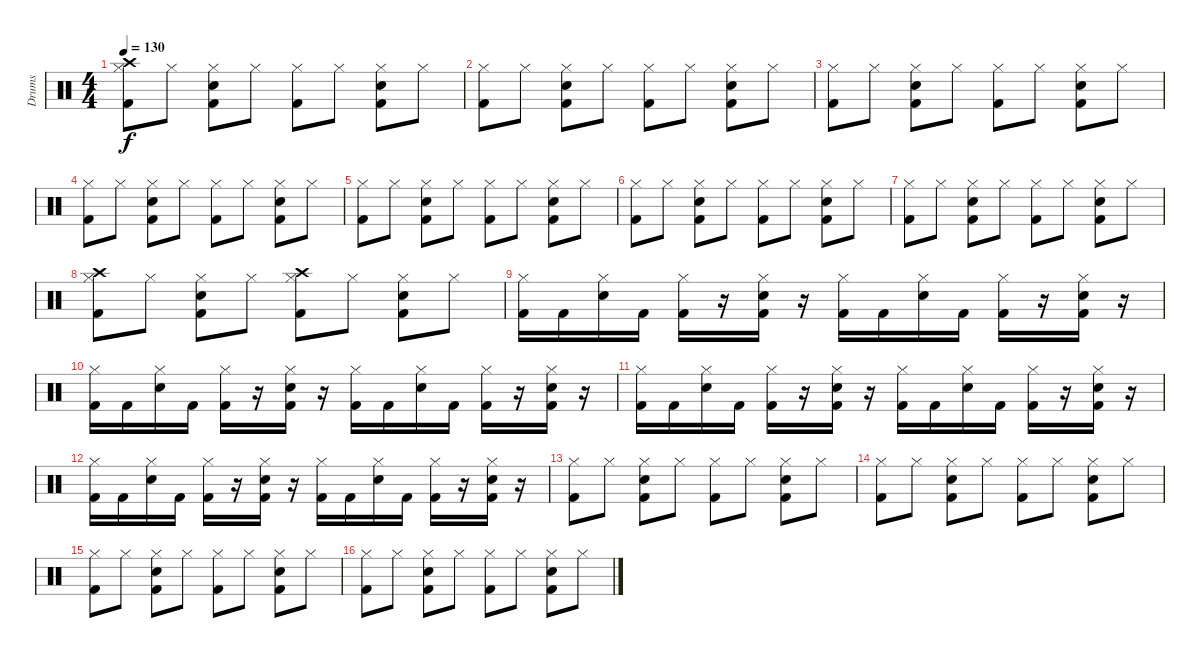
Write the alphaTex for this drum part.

\track ("Drums" "Drums") {instrument percussion}
\staff {score}
\articulation defaults
\ts (4 4)
\tempo 130
\clef neutral
\ks c
("Hi-Hat (closed)" "Kick (hit) 2" "Crash high (hit)").8{dy f} "Hi-Hat (closed)".8 ("Hi-Hat (closed)" "Electric Snare (hit)" "Kick (hit) 2").8 "Hi-Hat (closed)".8 ("Hi-Hat (closed)" "Kick (hit) 2").8 "Hi-Hat (closed)".8 ("Hi-Hat (closed)" "Electric Snare (hit)" "Kick (hit) 2").8 "Hi-Hat (closed)".8 |
("Hi-Hat (closed)" "Kick (hit) 2").8 "Hi-Hat (closed)".8 ("Hi-Hat (closed)" "Electric Snare (hit)" "Kick (hit) 2").8 "Hi-Hat (closed)".8 ("Hi-Hat (closed)" "Kick (hit) 2").8 "Hi-Hat (closed)".8 ("Hi-Hat (closed)" "Electric Snare (hit)" "Kick (hit) 2").8 "Hi-Hat (closed)".8 |
("Hi-Hat (closed)" "Kick (hit) 2").8 "Hi-Hat (closed)".8 ("Hi-Hat (closed)" "Electric Snare (hit)" "Kick (hit) 2").8 "Hi-Hat (closed)".8 ("Hi-Hat (closed)" "Kick (hit) 2").8 "Hi-Hat (closed)".8 ("Hi-Hat (closed)" "Electric Snare (hit)" "Kick (hit) 2").8 "Hi-Hat (closed)".8 |
("Hi-Hat (closed)" "Kick (hit) 2").8 "Hi-Hat (closed)".8 ("Hi-Hat (closed)" "Electric Snare (hit)" "Kick (hit) 2").8 "Hi-Hat (closed)".8 ("Hi-Hat (closed)" "Kick (hit) 2").8 "Hi-Hat (closed)".8 ("Hi-Hat (closed)" "Electric Snare (hit)" "Kick (hit) 2").8 "Hi-Hat (closed)".8 |
("Hi-Hat (closed)" "Kick (hit) 2").8 "Hi-Hat (closed)".8 ("Hi-Hat (closed)" "Electric Snare (hit)" "Kick (hit) 2").8 "Hi-Hat (closed)".8 ("Hi-Hat (closed)" "Kick (hit) 2").8 "Hi-Hat (closed)".8 ("Hi-Hat (closed)" "Electric Snare (hit)" "Kick (hit) 2").8 "Hi-Hat (closed)".8 |
("Hi-Hat (closed)" "Kick (hit) 2").8 "Hi-Hat (closed)".8 ("Hi-Hat (closed)" "Electric Snare (hit)" "Kick (hit) 2").8 "Hi-Hat (closed)".8 ("Hi-Hat (closed)" "Kick (hit) 2").8 "Hi-Hat (closed)".8 ("Hi-Hat (closed)" "Electric Snare (hit)" "Kick (hit) 2").8 "Hi-Hat (closed)".8 |
("Hi-Hat (closed)" "Kick (hit) 2").8 "Hi-Hat (closed)".8 ("Hi-Hat (closed)" "Electric Snare (hit)" "Kick (hit) 2").8 "Hi-Hat (closed)".8 ("Hi-Hat (closed)" "Kick (hit) 2").8 "Hi-Hat (closed)".8 ("Hi-Hat (closed)" "Electric Snare (hit)" "Kick (hit) 2").8 "Hi-Hat (closed)".8 |
("Hi-Hat (closed)" "Kick (hit) 2" "Crash high (hit)").8 "Hi-Hat (closed)".8 ("Hi-Hat (closed)" "Electric Snare (hit)" "Kick (hit) 2").8 "Hi-Hat (closed)".8 ("Hi-Hat (closed)" "Kick (hit) 2" "Crash high (hit)").8 "Hi-Hat (closed)".8 ("Hi-Hat (closed)" "Electric Snare (hit)" "Kick (hit) 2").8 "Hi-Hat (closed)".8 |
("Kick (hit) 2" "Hi-Hat (closed)").16 "Kick (hit) 2".16 ("Hi-Hat (closed)" "Electric Snare (hit)").16 "Kick (hit) 2".16 ("Kick (hit) 2" "Hi-Hat (closed)").16 r.16 ("Kick (hit) 2" "Hi-Hat (closed)" "Electric Snare (hit)").16 r.16 ("Kick (hit) 2" "Hi-Hat (closed)").16 "Kick (hit) 2".16 ("Hi-Hat (closed)" "Electric Snare (hit)").16 "Kick (hit) 2".16 ("Kick (hit) 2" "Hi-Hat (closed)").16 r.16 ("Kick (hit) 2" "Hi-Hat (closed)" "Electric Snare (hit)").16 r.16 |
("Kick (hit) 2" "Hi-Hat (closed)").16 "Kick (hit) 2".16 ("Hi-Hat (closed)" "Electric Snare (hit)").16 "Kick (hit) 2".16 ("Kick (hit) 2" "Hi-Hat (closed)").16 r.16 ("Kick (hit) 2" "Hi-Hat (closed)" "Electric Snare (hit)").16 r.16 ("Kick (hit) 2" "Hi-Hat (closed)").16 "Kick (hit) 2".16 ("Hi-Hat (closed)" "Electric Snare (hit)").16 "Kick (hit) 2".16 ("Kick (hit) 2" "Hi-Hat (closed)").16 r.16 ("Kick (hit) 2" "Hi-Hat (closed)" "Electric Snare (hit)").16 r.16 |
("Kick (hit) 2" "Hi-Hat (closed)").16 "Kick (hit) 2".16 ("Hi-Hat (closed)" "Electric Snare (hit)").16 "Kick (hit) 2".16 ("Kick (hit) 2" "Hi-Hat (closed)").16 r.16 ("Kick (hit) 2" "Hi-Hat (closed)" "Electric Snare (hit)").16 r.16 ("Kick (hit) 2" "Hi-Hat (closed)").16 "Kick (hit) 2".16 ("Hi-Hat (closed)" "Electric Snare (hit)").16 "Kick (hit) 2".16 ("Kick (hit) 2" "Hi-Hat (closed)").16 r.16 ("Kick (hit) 2" "Hi-Hat (closed)" "Electric Snare (hit)").16 r.16 |
("Kick (hit) 2" "Hi-Hat (closed)").16 "Kick (hit) 2".16 ("Hi-Hat (closed)" "Electric Snare (hit)").16 "Kick (hit) 2".16 ("Kick (hit) 2" "Hi-Hat (closed)").16 r.16 ("Kick (hit) 2" "Hi-Hat (closed)" "Electric Snare (hit)").16 r.16 ("Kick (hit) 2" "Hi-Hat (closed)").16 "Kick (hit) 2".16 ("Hi-Hat (closed)" "Electric Snare (hit)").16 "Kick (hit) 2".16 ("Kick (hit) 2" "Hi-Hat (closed)").16 r.16 ("Kick (hit) 2" "Hi-Hat (closed)" "Electric Snare (hit)").16 r.16 |
("Hi-Hat (closed)" "Kick (hit) 2").8 "Hi-Hat (closed)".8 ("Hi-Hat (closed)" "Electric Snare (hit)" "Kick (hit) 2").8 "Hi-Hat (closed)".8 ("Hi-Hat (closed)" "Kick (hit) 2").8 "Hi-Hat (closed)".8 ("Hi-Hat (closed)" "Electric Snare (hit)" "Kick (hit) 2").8 "Hi-Hat (closed)".8 |
("Hi-Hat (closed)" "Kick (hit) 2").8 "Hi-Hat (closed)".8 ("Hi-Hat (closed)" "Electric Snare (hit)" "Kick (hit) 2").8 "Hi-Hat (closed)".8 ("Hi-Hat (closed)" "Kick (hit) 2").8 "Hi-Hat (closed)".8 ("Hi-Hat (closed)" "Electric Snare (hit)" "Kick (hit) 2").8 "Hi-Hat (closed)".8 |
("Hi-Hat (closed)" "Kick (hit) 2").8 "Hi-Hat (closed)".8 ("Hi-Hat (closed)" "Electric Snare (hit)" "Kick (hit) 2").8 "Hi-Hat (closed)".8 ("Hi-Hat (closed)" "Kick (hit) 2").8 "Hi-Hat (closed)".8 ("Hi-Hat (closed)" "Electric Snare (hit)" "Kick (hit) 2").8 "Hi-Hat (closed)".8 |
("Hi-Hat (closed)" "Kick (hit) 2").8 "Hi-Hat (closed)".8 ("Hi-Hat (closed)" "Electric Snare (hit)" "Kick (hit) 2").8 "Hi-Hat (closed)".8 ("Hi-Hat (closed)" "Kick (hit) 2").8 "Hi-Hat (closed)".8 ("Hi-Hat (closed)" "Electric Snare (hit)" "Kick (hit) 2").8 "Hi-Hat (closed)".8
